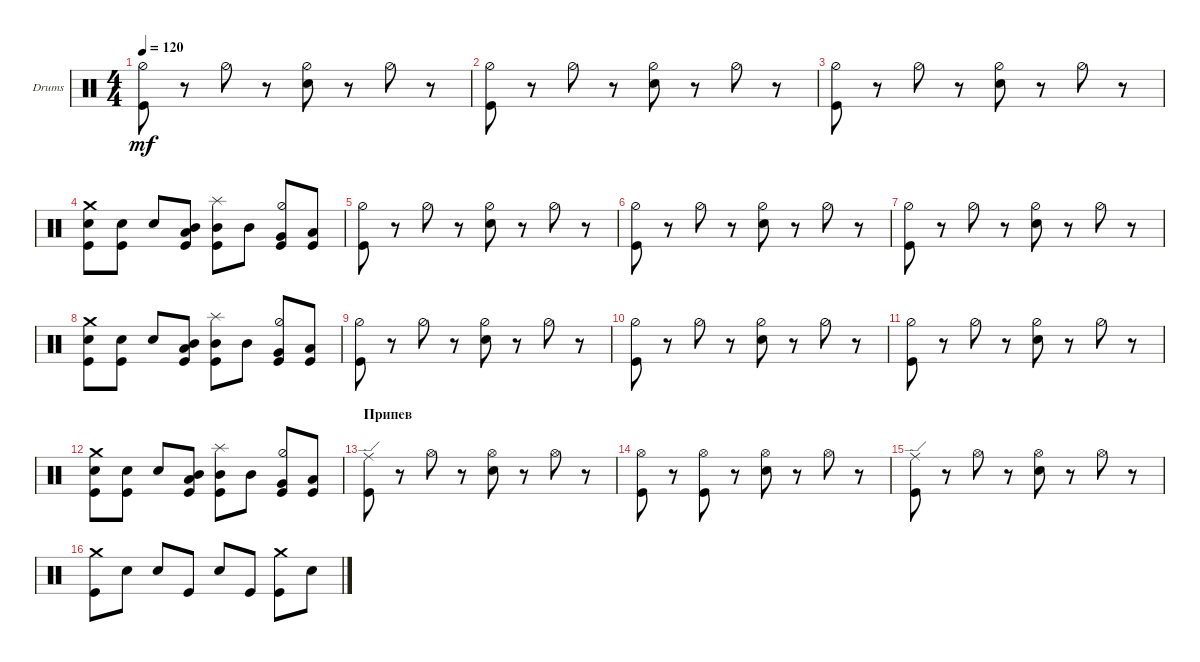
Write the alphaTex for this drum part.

\bracketExtendMode groupsimilarinstruments
\firstSystemTrackNameOrientation horizontal
\otherSystemsTrackNameOrientation horizontal
\track ("Drumkit" "Drums") {instrument percussion}
\staff {score}
\articulation defaults
\ts (4 4)
\tempo 120
\clef neutral
\ks c
("Kick (hit)" "Hi-Hat (half)").8{dy mf} r.8 "Hi-Hat (half)".8 r.8 ("Snare (hit) 2" "Hi-Hat (half)").8 r.8 "Hi-Hat (half)".8 r.8 |
("Kick (hit)" "Hi-Hat (half)").8 r.8 "Hi-Hat (half)".8 r.8 ("Snare (hit) 2" "Hi-Hat (half)").8 r.8 "Hi-Hat (half)".8 r.8 |
("Kick (hit)" "Hi-Hat (half)").8 r.8 "Hi-Hat (half)".8 r.8 ("Snare (hit) 2" "Hi-Hat (half)").8 r.8 "Hi-Hat (half)".8 r.8 |
("Kick (hit)" "Snare (hit) 2" "Crash medium (hit)").8 ("Snare (hit) 2" "Kick (hit)").8 "Snare (hit) 2".8 ("Kick (hit)" "Low Tom (hit)" "Mid Tom (hit)").8 ("Kick (hit)" "Mid Tom (hit)" "Splash (hit)").8 "Mid Tom (hit)".8 ("Kick (hit)" "Hi-Hat (half)" "Very Low Tom (hit)").8 ("Kick (hit)" "Low Tom (hit)").8 |
("Kick (hit)" "Hi-Hat (half)").8 r.8 "Hi-Hat (half)".8 r.8 ("Snare (hit) 2" "Hi-Hat (half)").8 r.8 "Hi-Hat (half)".8 r.8 |
("Kick (hit)" "Hi-Hat (half)").8 r.8 "Hi-Hat (half)".8 r.8 ("Snare (hit) 2" "Hi-Hat (half)").8 r.8 "Hi-Hat (half)".8 r.8 |
("Kick (hit)" "Hi-Hat (half)").8 r.8 "Hi-Hat (half)".8 r.8 ("Snare (hit) 2" "Hi-Hat (half)").8 r.8 "Hi-Hat (half)".8 r.8 |
("Kick (hit)" "Snare (hit) 2" "Crash medium (hit)").8 ("Snare (hit) 2" "Kick (hit)").8 "Snare (hit) 2".8 ("Kick (hit)" "Low Tom (hit)" "Mid Tom (hit)").8 ("Kick (hit)" "Mid Tom (hit)" "Splash (hit)").8 "Mid Tom (hit)".8 ("Kick (hit)" "Hi-Hat (half)" "Very Low Tom (hit)").8 ("Kick (hit)" "Low Tom (hit)").8 |
("Kick (hit)" "Hi-Hat (half)").8 r.8 "Hi-Hat (half)".8 r.8 ("Snare (hit) 2" "Hi-Hat (half)").8 r.8 "Hi-Hat (half)".8 r.8 |
("Kick (hit)" "Hi-Hat (half)").8 r.8 "Hi-Hat (half)".8 r.8 ("Snare (hit) 2" "Hi-Hat (half)").8 r.8 "Hi-Hat (half)".8 r.8 |
("Kick (hit)" "Hi-Hat (half)").8 r.8 "Hi-Hat (half)".8 r.8 ("Snare (hit) 2" "Hi-Hat (half)").8 r.8 "Hi-Hat (half)".8 r.8 |
("Kick (hit)" "Snare (hit) 2" "Crash medium (hit)").8 ("Snare (hit) 2" "Kick (hit)").8 "Snare (hit) 2".8 ("Kick (hit)" "Low Tom (hit)" "Mid Tom (hit)").8 ("Kick (hit)" "Mid Tom (hit)" "Splash (hit)").8 "Mid Tom (hit)".8 ("Kick (hit)" "Hi-Hat (half)" "Very Low Tom (hit)").8 ("Kick (hit)" "Low Tom (hit)").8 |
\section ("" "Припев")
("Kick (hit)" "Ride (edge)").8 r.8 "Hi-Hat (open)".8 r.8 ("Snare (hit) 2" "Hi-Hat (open)").8 r.8 "Hi-Hat (open)".8 r.8 |
("Kick (hit)" "Hi-Hat (open)").8 r.8 ("Kick (hit)" "Hi-Hat (open)").8 r.8 ("Snare (hit) 2" "Hi-Hat (open)").8 r.8 "Hi-Hat (open)".8 r.8 |
("Kick (hit)" "Ride (edge)").8 r.8 "Hi-Hat (open)".8 r.8 ("Snare (hit) 2" "Hi-Hat (open)").8 r.8 "Hi-Hat (open)".8 r.8 |
("Kick (hit)" "Crash medium (hit)").8 "Snare (hit) 2".8 "Snare (hit) 2".8 "Kick (hit)".8 "Snare (hit) 2".8 "Kick (hit)".8 ("Kick (hit)" "Crash medium (hit)").8 "Snare (hit) 2".8
